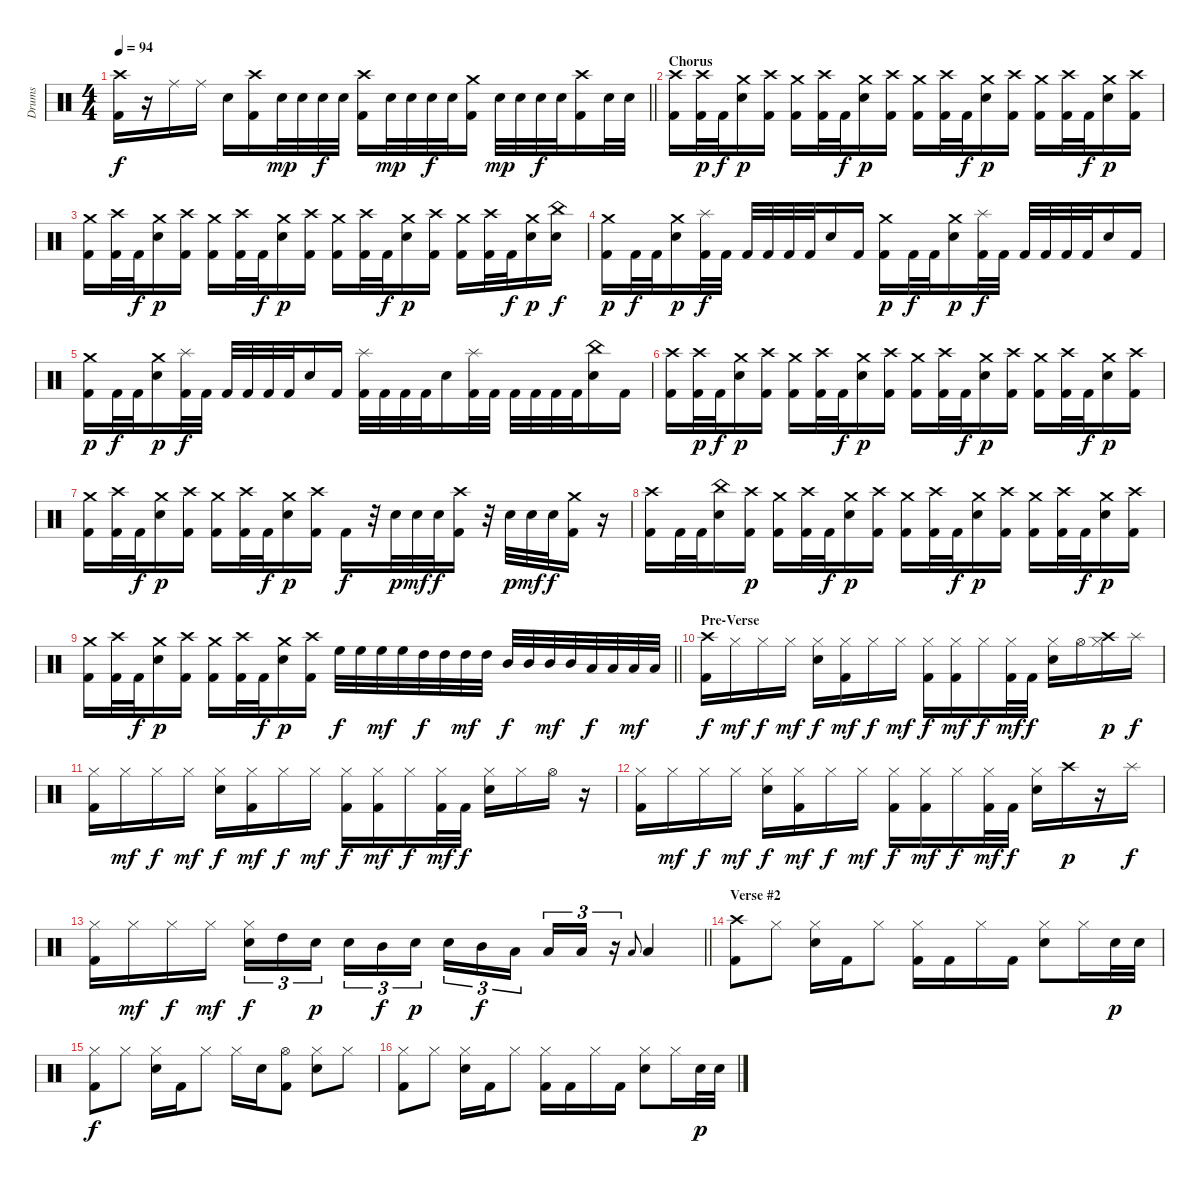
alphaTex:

\track ("Drums" "Drums") {instrument percussion}
\staff {score}
\articulation defaults
\ts (4 4)
\tempo 94
\clef neutral
\barLineRight lightlight
\ks c
("Kick (hit) 2" "Crash high (hit)").16{dy f} r.16 "Ride (middle)".16 "Ride (middle)".16 "Snare (hit) 2".16 ("Kick (hit) 2" "Crash high (hit)").16 "Snare (hit) 2".32{dy mp} "Snare (hit) 2".32 "Snare (hit) 2".32{dy f} "Snare (hit) 2".32 ("Kick (hit) 2" "Crash high (hit)").16 "Snare (hit) 2".32{dy mp} "Snare (hit) 2".32 "Snare (hit) 2".32{dy f} "Snare (hit) 2".32 ("Kick (hit) 2" "Crash medium (hit)").16 "Snare (hit) 2".32{dy mp} "Snare (hit) 2".32 "Snare (hit) 2".32{dy f} "Snare (hit) 2".32 ("Kick (hit) 2" "Crash high (hit)").16 "Snare (hit) 2".32 "Snare (hit) 2".32 |
\section ("" "Chorus")
("Kick (hit) 2" "Crash high (hit)").16 ("Kick (hit) 2" "Crash high (hit)").32{dy p} "Kick (hit) 2".32{dy f} ("Snare (hit) 2" "Crash medium (hit)").16{dy p} ("Kick (hit) 2" "Crash high (hit)").16 ("Kick (hit) 2" "Crash medium (hit)").16 ("Kick (hit) 2" "Crash high (hit)").32 "Kick (hit) 2".32{dy f} ("Snare (hit) 2" "Crash medium (hit)").16{dy p} ("Kick (hit) 2" "Crash high (hit)").16 ("Kick (hit) 2" "Crash medium (hit)").16 ("Kick (hit) 2" "Crash high (hit)").32 "Kick (hit) 2".32{dy f} ("Snare (hit) 2" "Crash medium (hit)").16{dy p} ("Kick (hit) 2" "Crash high (hit)").16 ("Kick (hit) 2" "Crash medium (hit)").16 ("Kick (hit) 2" "Crash high (hit)").32 "Kick (hit) 2".32{dy f} ("Snare (hit) 2" "Crash medium (hit)").16{dy p} ("Kick (hit) 2" "Crash high (hit)").16 |
("Kick (hit) 2" "Crash medium (hit)").16 ("Kick (hit) 2" "Crash high (hit)").32 "Kick (hit) 2".32{dy f} ("Snare (hit) 2" "Crash medium (hit)").16{dy p} ("Kick (hit) 2" "Crash high (hit)").16 ("Kick (hit) 2" "Crash medium (hit)").16 ("Kick (hit) 2" "Crash high (hit)").32 "Kick (hit) 2".32{dy f} ("Snare (hit) 2" "Crash medium (hit)").16{dy p} ("Kick (hit) 2" "Crash high (hit)").16 ("Kick (hit) 2" "Crash medium (hit)").16 ("Kick (hit) 2" "Crash high (hit)").32 "Kick (hit) 2".32{dy f} ("Snare (hit) 2" "Crash medium (hit)").16{dy p} ("Kick (hit) 2" "Crash high (hit)").16 ("Kick (hit) 2" "Crash medium (hit)").16 ("Kick (hit) 2" "Crash high (hit)").32 "Kick (hit) 2".32{dy f} ("Snare (hit) 2" "Crash medium (hit)").16{dy p} ("China (hit)" "Snare (hit) 2").16{dy f} |
("Kick (hit) 2" "Crash medium (hit)").16{dy p} "Kick (hit) 2".32{dy f} "Kick (hit) 2".32 ("Snare (hit) 2" "Crash medium (hit)").16{dy p} ("Kick (hit) 2" "Splash (hit)").32{dy f} "Kick (hit) 2".32 "Kick (hit) 2".32 "Kick (hit) 2".32 "Kick (hit) 2".32 "Kick (hit) 2".32 "Snare (hit) 2".16 "Kick (hit) 2".16 ("Kick (hit) 2" "Crash medium (hit)").16{dy p} "Kick (hit) 2".32{dy f} "Kick (hit) 2".32 ("Snare (hit) 2" "Crash medium (hit)").16{dy p} ("Kick (hit) 2" "Splash (hit)").32{dy f} "Kick (hit) 2".32 "Kick (hit) 2".32 "Kick (hit) 2".32 "Kick (hit) 2".32 "Kick (hit) 2".32 "Snare (hit) 2".16 "Kick (hit) 2".16 |
("Kick (hit) 2" "Crash medium (hit)").16{dy p} "Kick (hit) 2".32{dy f} "Kick (hit) 2".32 ("Snare (hit) 2" "Crash medium (hit)").16{dy p} ("Kick (hit) 2" "Splash (hit)").32{dy f} "Kick (hit) 2".32 "Kick (hit) 2".32 "Kick (hit) 2".32 "Kick (hit) 2".32 "Kick (hit) 2".32 "Snare (hit) 2".16 "Kick (hit) 2".16 ("Kick (hit) 2" "Splash (hit)").32 "Kick (hit) 2".32 "Kick (hit) 2".32 "Kick (hit) 2".32 "Snare (hit) 2".16 ("Kick (hit) 2" "Splash (hit)").32 "Kick (hit) 2".32 "Kick (hit) 2".32 "Kick (hit) 2".32 "Kick (hit) 2".32 "Kick (hit) 2".32 ("Snare (hit) 2" "China (hit)").16 "Kick (hit) 2".16 |
("Kick (hit) 2" "Crash high (hit)").16 ("Kick (hit) 2" "Crash high (hit)").32{dy p} "Kick (hit) 2".32{dy f} ("Snare (hit) 2" "Crash medium (hit)").16{dy p} ("Kick (hit) 2" "Crash high (hit)").16 ("Kick (hit) 2" "Crash medium (hit)").16 ("Kick (hit) 2" "Crash high (hit)").32 "Kick (hit) 2".32{dy f} ("Snare (hit) 2" "Crash medium (hit)").16{dy p} ("Kick (hit) 2" "Crash high (hit)").16 ("Kick (hit) 2" "Crash medium (hit)").16 ("Kick (hit) 2" "Crash high (hit)").32 "Kick (hit) 2".32{dy f} ("Snare (hit) 2" "Crash medium (hit)").16{dy p} ("Kick (hit) 2" "Crash high (hit)").16 ("Kick (hit) 2" "Crash medium (hit)").16 ("Kick (hit) 2" "Crash high (hit)").32 "Kick (hit) 2".32{dy f} ("Snare (hit) 2" "Crash medium (hit)").16{dy p} ("Kick (hit) 2" "Crash high (hit)").16 |
("Kick (hit) 2" "Crash medium (hit)").16 ("Kick (hit) 2" "Crash high (hit)").32 "Kick (hit) 2".32{dy f} ("Snare (hit) 2" "Crash medium (hit)").16{dy p} ("Kick (hit) 2" "Crash high (hit)").16 ("Kick (hit) 2" "Crash medium (hit)").16 ("Kick (hit) 2" "Crash high (hit)").32 "Kick (hit) 2".32{dy f} ("Snare (hit) 2" "Crash medium (hit)").16{dy p} ("Kick (hit) 2" "Crash high (hit)").16 "Kick (hit) 2".16{dy f} r.32 "Snare (hit) 2".32{dy p} "Snare (hit) 2".32{dy mf} "Snare (hit) 2".32{dy f} ("Kick (hit) 2" "Crash high (hit)").16 r.32 "Snare (hit) 2".32{dy p} "Snare (hit) 2".32{dy mf} "Snare (hit) 2".32{dy f} ("Kick (hit) 2" "Crash medium (hit)").16 r.16 |
("Kick (hit) 2" "Crash high (hit)").16 "Kick (hit) 2".32 "Kick (hit) 2".32 ("Snare (hit) 2" "China (hit)").16 ("Kick (hit) 2" "Crash high (hit)").16{dy p} ("Kick (hit) 2" "Crash medium (hit)").16 ("Kick (hit) 2" "Crash high (hit)").32 "Kick (hit) 2".32{dy f} ("Snare (hit) 2" "Crash medium (hit)").16{dy p} ("Kick (hit) 2" "Crash high (hit)").16 ("Kick (hit) 2" "Crash medium (hit)").16 ("Kick (hit) 2" "Crash high (hit)").32 "Kick (hit) 2".32{dy f} ("Snare (hit) 2" "Crash medium (hit)").16{dy p} ("Kick (hit) 2" "Crash high (hit)").16 ("Kick (hit) 2" "Crash medium (hit)").16 ("Kick (hit) 2" "Crash high (hit)").32 "Kick (hit) 2".32{dy f} ("Snare (hit) 2" "Crash medium (hit)").16{dy p} ("Kick (hit) 2" "Crash high (hit)").16 |
\barLineRight lightlight
("Kick (hit) 2" "Crash medium (hit)").16 ("Kick (hit) 2" "Crash high (hit)").32 "Kick (hit) 2".32{dy f} ("Snare (hit) 2" "Crash medium (hit)").16{dy p} ("Kick (hit) 2" "Crash high (hit)").16 ("Kick (hit) 2" "Crash medium (hit)").16 ("Kick (hit) 2" "Crash high (hit)").32 "Kick (hit) 2".32{dy f} ("Snare (hit) 2" "Crash medium (hit)").16{dy p} ("Kick (hit) 2" "Crash high (hit)").16 "High Floor Tom (hit)".32{dy f} "High Floor Tom (hit)".32 "High Floor Tom (hit)".32{dy mf} "High Floor Tom (hit)".32 "High Tom (hit)".32{dy f} "High Tom (hit)".32 "High Tom (hit)".32{dy mf} "High Tom (hit)".32 "Mid Tom (hit)".32{dy f} "Mid Tom (hit)".32 "Mid Tom (hit)".32{dy mf} "Mid Tom (hit)".32 "Low Tom (hit)".32{dy f} "Low Tom (hit)".32 "Low Tom (hit)".32{dy mf} "Low Tom (hit)".32 |
\section ("" "Pre-Verse")
("Kick (hit) 2" "Crash high (hit)").16{dy f} "Hi-Hat (closed)".16{dy mf} "Hi-Hat (closed)".16{dy f} "Hi-Hat (closed)".16{dy mf} ("Hi-Hat (closed)" "Snare (hit) 2").16{dy f} ("Hi-Hat (closed)" "Kick (hit) 2").16{dy mf} "Hi-Hat (closed)".16{dy f} "Hi-Hat (closed)".16{dy mf} ("Hi-Hat (closed)" "Kick (hit) 2").16{dy f} ("Hi-Hat (closed)" "Kick (hit) 2").16{dy mf} "Hi-Hat (closed)".16{dy f} ("Hi-Hat (closed)" "Kick (hit) 2").32{dy mf} "Kick (hit) 2".32{dy f} ("Hi-Hat (closed)" "Snare (hit) 2").16 "Hi-Hat (open)".16 ("Hi-Hat (closed)" "Crash high (hit)").16{dy p} "Splash (hit)".16{dy f} |
("Kick (hit) 2" "Hi-Hat (closed)").16 "Hi-Hat (closed)".16{dy mf} "Hi-Hat (closed)".16{dy f} "Hi-Hat (closed)".16{dy mf} ("Hi-Hat (closed)" "Snare (hit) 2").16{dy f} ("Hi-Hat (closed)" "Kick (hit) 2").16{dy mf} "Hi-Hat (closed)".16{dy f} "Hi-Hat (closed)".16{dy mf} ("Hi-Hat (closed)" "Kick (hit) 2").16{dy f} ("Hi-Hat (closed)" "Kick (hit) 2").16{dy mf} "Hi-Hat (closed)".16{dy f} ("Hi-Hat (closed)" "Kick (hit) 2").32{dy mf} "Kick (hit) 2".32{dy f} ("Hi-Hat (closed)" "Snare (hit) 2").16 "Hi-Hat (closed)".16 "Hi-Hat (open)".16 r.16 |
("Kick (hit) 2" "Hi-Hat (closed)").16 "Hi-Hat (closed)".16{dy mf} "Hi-Hat (closed)".16{dy f} "Hi-Hat (closed)".16{dy mf} ("Hi-Hat (closed)" "Snare (hit) 2").16{dy f} ("Hi-Hat (closed)" "Kick (hit) 2").16{dy mf} "Hi-Hat (closed)".16{dy f} "Hi-Hat (closed)".16{dy mf} ("Hi-Hat (closed)" "Kick (hit) 2").16{dy f} ("Hi-Hat (closed)" "Kick (hit) 2").16{dy mf} "Hi-Hat (closed)".16{dy f} ("Hi-Hat (closed)" "Kick (hit) 2").32{dy mf} "Kick (hit) 2".32{dy f} ("Hi-Hat (closed)" "Snare (hit) 2").16 "Crash high (hit)".16{dy p} r.16 "Splash (hit)".16{dy f} |
\barLineRight lightlight
("Kick (hit) 2" "Hi-Hat (closed)").16 "Hi-Hat (closed)".16{dy mf} "Hi-Hat (closed)".16{dy f} "Hi-Hat (closed)".16{dy mf} ("Hi-Hat (closed)" "Snare (hit) 2").16{tu (3 2) dy f} "High Tom (hit)".16{tu (3 2)} "Snare (hit) 2".16{tu (3 2) dy p beam splitsecondary} "Snare (hit) 2".16{tu (3 2)} "Mid Tom (hit)".16{tu (3 2) dy f} "Snare (hit) 2".16{tu (3 2) dy p} "Snare (hit) 2".16{tu (3 2)} "Mid Tom (hit)".16{tu (3 2) dy f} "Low Tom (hit)".16{tu (3 2) beam splitsecondary} "Low Tom (hit)".16{tu (3 2)} "Low Tom (hit)".16{tu (3 2)} r.16{tu (3 2)} "Low Tom (hit)".8{gr onbeat} "Low Tom (hit)".4 |
\section ("" "Verse #2")
("Kick (hit) 2" "Crash high (hit)").8 "Hi-Hat (closed)".8 ("Hi-Hat (closed)" "Snare (hit) 2").16 "Kick (hit) 2".16 "Hi-Hat (closed)".8 ("Hi-Hat (closed)" "Kick (hit) 2").16 "Kick (hit) 2".16 "Hi-Hat (closed)".16 "Kick (hit) 2".16 ("Snare (hit) 2" "Hi-Hat (closed)").8 "Hi-Hat (closed)".16 "Snare (hit) 2".32{dy p} "Snare (hit) 2".32 |
("Kick (hit) 2" "Hi-Hat (closed)").8{dy f} "Hi-Hat (closed)".8 ("Hi-Hat (closed)" "Snare (hit) 2").16 "Kick (hit) 2".16 "Hi-Hat (closed)".8 "Hi-Hat (closed)".16 "Snare (hit) 2".16 ("Kick (hit) 2" "Hi-Hat (open)").8 ("Snare (hit) 2" "Hi-Hat (closed)").8 "Hi-Hat (closed)".8 |
("Kick (hit) 2" "Hi-Hat (closed)").8 "Hi-Hat (closed)".8 ("Hi-Hat (closed)" "Snare (hit) 2").16 "Kick (hit) 2".16 "Hi-Hat (closed)".8 ("Hi-Hat (closed)" "Kick (hit) 2").16 "Kick (hit) 2".16 "Hi-Hat (closed)".16 "Kick (hit) 2".16 ("Snare (hit) 2" "Hi-Hat (closed)").8 "Hi-Hat (closed)".16 "Snare (hit) 2".32{dy p} "Snare (hit) 2".32
